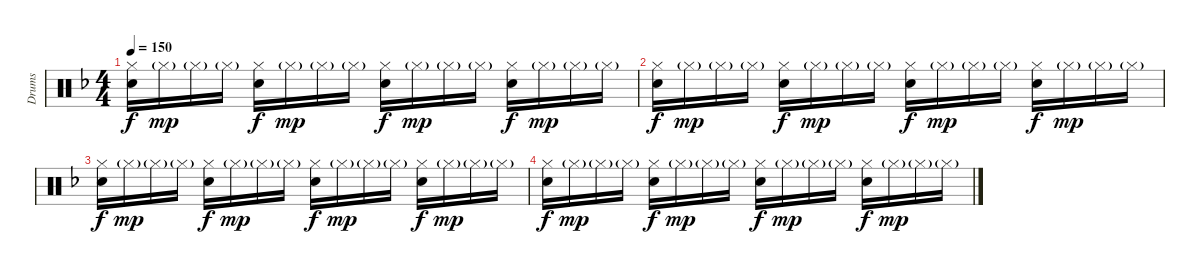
\track ("Drums" "Drums") {instrument percussion}
\staff {score}
\articulation defaults
\ts (4 4)
\tempo 150
\clef neutral
\ks dminor
("Hi-Hat (closed)" "Snare (hit) 2").16{dy f} "Hi-Hat (closed)"{g}.16{dy mp} "Hi-Hat (closed)"{g}.16 "Hi-Hat (closed)"{g}.16 ("Hi-Hat (closed)" "Snare (hit) 2").16{dy f} "Hi-Hat (closed)"{g}.16{dy mp} "Hi-Hat (closed)"{g}.16 "Hi-Hat (closed)"{g}.16 ("Hi-Hat (closed)" "Snare (hit) 2").16{dy f} "Hi-Hat (closed)"{g}.16{dy mp} "Hi-Hat (closed)"{g}.16 "Hi-Hat (closed)"{g}.16 ("Hi-Hat (closed)" "Snare (hit) 2").16{dy f} "Hi-Hat (closed)"{g}.16{dy mp} "Hi-Hat (closed)"{g}.16 "Hi-Hat (closed)"{g}.16 |
("Hi-Hat (closed)" "Snare (hit) 2").16{dy f} "Hi-Hat (closed)"{g}.16{dy mp} "Hi-Hat (closed)"{g}.16 "Hi-Hat (closed)"{g}.16 ("Hi-Hat (closed)" "Snare (hit) 2").16{dy f} "Hi-Hat (closed)"{g}.16{dy mp} "Hi-Hat (closed)"{g}.16 "Hi-Hat (closed)"{g}.16 ("Hi-Hat (closed)" "Snare (hit) 2").16{dy f} "Hi-Hat (closed)"{g}.16{dy mp} "Hi-Hat (closed)"{g}.16 "Hi-Hat (closed)"{g}.16 ("Hi-Hat (closed)" "Snare (hit) 2").16{dy f} "Hi-Hat (closed)"{g}.16{dy mp} "Hi-Hat (closed)"{g}.16 "Hi-Hat (closed)"{g}.16 |
("Hi-Hat (closed)" "Snare (hit) 2").16{dy f} "Hi-Hat (closed)"{g}.16{dy mp} "Hi-Hat (closed)"{g}.16 "Hi-Hat (closed)"{g}.16 ("Hi-Hat (closed)" "Snare (hit) 2").16{dy f} "Hi-Hat (closed)"{g}.16{dy mp} "Hi-Hat (closed)"{g}.16 "Hi-Hat (closed)"{g}.16 ("Hi-Hat (closed)" "Snare (hit) 2").16{dy f} "Hi-Hat (closed)"{g}.16{dy mp} "Hi-Hat (closed)"{g}.16 "Hi-Hat (closed)"{g}.16 ("Hi-Hat (closed)" "Snare (hit) 2").16{dy f} "Hi-Hat (closed)"{g}.16{dy mp} "Hi-Hat (closed)"{g}.16 "Hi-Hat (closed)"{g}.16 |
("Hi-Hat (closed)" "Snare (hit) 2").16{dy f} "Hi-Hat (closed)"{g}.16{dy mp} "Hi-Hat (closed)"{g}.16 "Hi-Hat (closed)"{g}.16 ("Hi-Hat (closed)" "Snare (hit) 2").16{dy f} "Hi-Hat (closed)"{g}.16{dy mp} "Hi-Hat (closed)"{g}.16 "Hi-Hat (closed)"{g}.16 ("Hi-Hat (closed)" "Snare (hit) 2").16{dy f} "Hi-Hat (closed)"{g}.16{dy mp} "Hi-Hat (closed)"{g}.16 "Hi-Hat (closed)"{g}.16 ("Hi-Hat (closed)" "Snare (hit) 2").16{dy f} "Hi-Hat (closed)"{g}.16{dy mp} "Hi-Hat (closed)"{g}.16 "Hi-Hat (closed)"{g}.16
